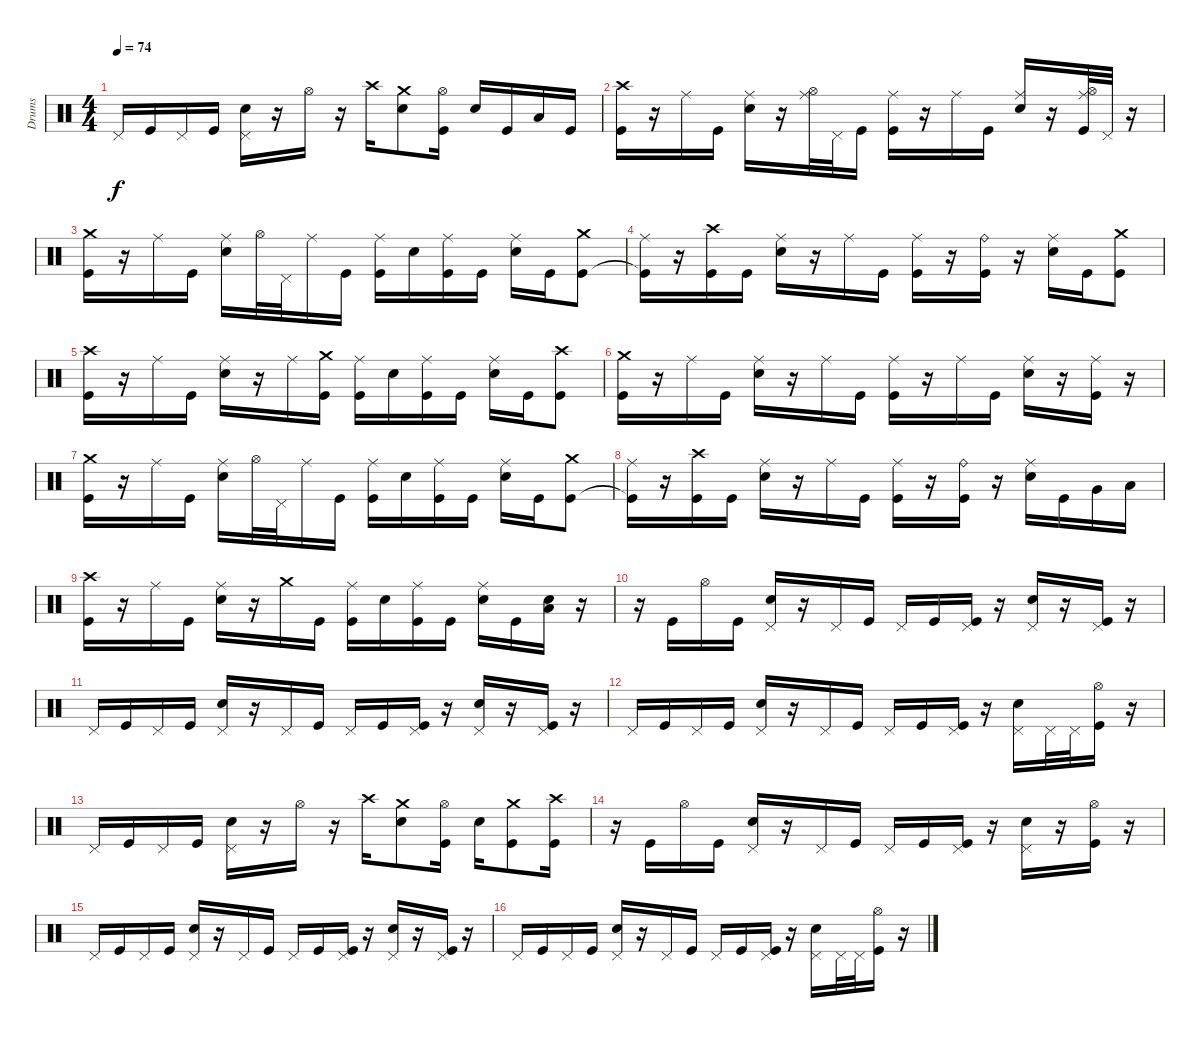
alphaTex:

\track ("Drums" "Drums") {instrument percussion}
\staff {score}
\articulation defaults
\ts (4 4)
\tempo 74
\clef neutral
\ks c "Pedal Hi-Hat (hit)".16{dy f} "Kick (hit)".16 "Pedal Hi-Hat (hit)".16 "Kick (hit)".16
("Pedal Hi-Hat (hit)" "Electric Snare (hit)").16 r.16 "Hi-Hat (open)".16 r.16 "Crash high (hit)".16 ("Crash medium (hit)" "Electric Snare (hit)").8 ("Hi-Hat (open)" "Kick (hit)").16 "Electric Snare (hit)".16 "Kick (hit)".16 "Low Tom (hit)".16 "Kick (hit)".16 |
("Crash high (hit)" "Kick (hit)").16 r.16 "Ride (middle)".16 "Kick (hit)".16 ("Ride (middle)" "Electric Snare (hit)").16 r.16 ("Ride (middle)" "Hi-Hat (open)").32 "Pedal Hi-Hat (hit)".32 "Kick (hit)".16 ("Ride (middle)" "Kick (hit)").16 r.16 "Ride (middle)".16 "Kick (hit)".16 ("Ride (middle)" "Electric Snare (hit)").16 r.16 ("Ride (middle)" "Kick (hit)" "Hi-Hat (open)").32 "Pedal Hi-Hat (hit)".32 r.16 |
("Crash medium (hit)" "Kick (hit)").16 r.16 "Ride (middle)".16 "Kick (hit)".16 ("Ride (middle)" "Electric Snare (hit)").16 "Hi-Hat (open)".32 "Pedal Hi-Hat (hit)".32 "Ride (middle)".16 "Kick (hit)".16 ("Ride (middle)" "Kick (hit)").16 "Electric Snare (hit)".16 ("Ride (middle)" "Kick (hit)").16 "Kick (hit)".16 ("Ride (middle)" "Electric Snare (hit)").16 "Kick (hit)".16 ("Crash medium (hit)" "Kick (hit)").8 |
("Ride (middle)" "Kick (hit)"{t}).16 r.16 ("Crash high (hit)" "Kick (hit)").16 "Kick (hit)".16 ("Ride (middle)" "Electric Snare (hit)").16 r.16 "Ride (middle)".16 "Kick (hit)".16 ("Ride (middle)" "Kick (hit)").16 r.16 ("Ride (bell)" "Kick (hit)").16 r.16 ("Ride (middle)" "Electric Snare (hit)").16 "Kick (hit)".16 ("Crash medium (hit)" "Kick (hit)").8 |
("Crash high (hit)" "Kick (hit)").16 r.16 "Ride (middle)".16 "Kick (hit)".16 ("Ride (middle)" "Electric Snare (hit)").16 r.16 "Ride (middle)".16 ("Crash medium (hit)" "Kick (hit)").16 ("Ride (middle)" "Kick (hit)").16 "Electric Snare (hit)".16 ("Ride (middle)" "Kick (hit)").16 "Kick (hit)".16 ("Ride (middle)" "Electric Snare (hit)").16 "Kick (hit)".16 ("Crash high (hit)" "Kick (hit)").8 |
("Crash medium (hit)" "Kick (hit)").16 r.16 "Ride (middle)".16 "Kick (hit)".16 ("Ride (middle)" "Electric Snare (hit)").16 r.16 "Ride (middle)".16 "Kick (hit)".16 ("Ride (middle)" "Kick (hit)").16 r.16 "Ride (middle)".16 "Kick (hit)".16 ("Ride (middle)" "Electric Snare (hit)").16 r.16 ("Ride (middle)" "Kick (hit)").16 r.16 |
("Crash medium (hit)" "Kick (hit)").16 r.16 "Ride (middle)".16 "Kick (hit)".16 ("Ride (middle)" "Electric Snare (hit)").16 "Hi-Hat (open)".32 "Pedal Hi-Hat (hit)".32 "Ride (middle)".16 "Kick (hit)".16 ("Ride (middle)" "Kick (hit)").16 "Electric Snare (hit)".16 ("Ride (middle)" "Kick (hit)").16 "Kick (hit)".16 ("Ride (middle)" "Electric Snare (hit)").16 "Kick (hit)".16 ("Crash medium (hit)" "Kick (hit)").8 |
("Ride (middle)" "Kick (hit)"{t}).16 r.16 ("Crash high (hit)" "Kick (hit)").16 "Kick (hit)".16 ("Ride (middle)" "Electric Snare (hit)").16 r.16 "Ride (middle)".16 "Kick (hit)".16 ("Ride (middle)" "Kick (hit)").16 r.16 ("Ride (bell)" "Kick (hit)").16 r.16 ("Ride (middle)" "Electric Snare (hit)").16 "Kick (hit)".16 "Very Low Tom (hit)".16 "Low Floor Tom (hit)".16 |
("Crash high (hit)" "Kick (hit)").16 r.16 "Ride (middle)".16 "Kick (hit)".16 ("Ride (middle)" "Electric Snare (hit)").16 r.16 "Crash medium (hit)".16 "Kick (hit)".16 ("Ride (middle)" "Kick (hit)").16 "Electric Snare (hit)".16 ("Ride (middle)" "Kick (hit)").16 "Kick (hit)".16 ("Ride (middle)" "Electric Snare (hit)").16 "Kick (hit)".16 ("Electric Snare (hit)" "Low Floor Tom (hit)").16 r.16 |
r.16 "Kick (hit)".16 "Hi-Hat (open)".16 "Kick (hit)".16 ("Pedal Hi-Hat (hit)" "Electric Snare (hit)").16 r.16 "Pedal Hi-Hat (hit)".16 "Kick (hit)".16 "Pedal Hi-Hat (hit)".16 "Kick (hit)".16 ("Pedal Hi-Hat (hit)" "Kick (hit)").16 r.16 ("Pedal Hi-Hat (hit)" "Electric Snare (hit)").16 r.16 ("Pedal Hi-Hat (hit)" "Kick (hit)").16 r.16 |
"Pedal Hi-Hat (hit)".16 "Kick (hit)".16 "Pedal Hi-Hat (hit)".16 "Kick (hit)".16 ("Pedal Hi-Hat (hit)" "Electric Snare (hit)").16 r.16 "Pedal Hi-Hat (hit)".16 "Kick (hit)".16 "Pedal Hi-Hat (hit)".16 "Kick (hit)".16 ("Pedal Hi-Hat (hit)" "Kick (hit)").16 r.16 ("Pedal Hi-Hat (hit)" "Electric Snare (hit)").16 r.16 ("Pedal Hi-Hat (hit)" "Kick (hit)").16 r.16 |
"Pedal Hi-Hat (hit)".16 "Kick (hit)".16 "Pedal Hi-Hat (hit)".16 "Kick (hit)".16 ("Pedal Hi-Hat (hit)" "Electric Snare (hit)").16 r.16 "Pedal Hi-Hat (hit)".16 "Kick (hit)".16 "Pedal Hi-Hat (hit)".16 "Kick (hit)".16 ("Pedal Hi-Hat (hit)" "Kick (hit)").16 r.16 ("Pedal Hi-Hat (hit)" "Electric Snare (hit)").16 "Pedal Hi-Hat (hit)".32 "Pedal Hi-Hat (hit)".32 ("Hi-Hat (open)" "Kick (hit)").16 r.16 |
"Pedal Hi-Hat (hit)".16 "Kick (hit)".16 "Pedal Hi-Hat (hit)".16 "Kick (hit)".16 ("Pedal Hi-Hat (hit)" "Electric Snare (hit)").16 r.16 "Hi-Hat (open)".16 r.16 "Crash high (hit)".16 ("Crash medium (hit)" "Electric Snare (hit)").8 ("Hi-Hat (open)" "Kick (hit)").16 "Electric Snare (hit)".16 ("Crash medium (hit)" "Kick (hit)").8 ("Crash high (hit)" "Kick (hit)").16 |
r.16 "Kick (hit)".16 "Hi-Hat (open)".16 "Kick (hit)".16 ("Pedal Hi-Hat (hit)" "Electric Snare (hit)").16 r.16 "Pedal Hi-Hat (hit)".16 "Kick (hit)".16 "Pedal Hi-Hat (hit)".16 "Kick (hit)".16 ("Pedal Hi-Hat (hit)" "Kick (hit)").16 r.16 ("Pedal Hi-Hat (hit)" "Electric Snare (hit)").16 r.16 ("Hi-Hat (open)" "Kick (hit)").16 r.16 |
"Pedal Hi-Hat (hit)".16 "Kick (hit)".16 "Pedal Hi-Hat (hit)".16 "Kick (hit)".16 ("Pedal Hi-Hat (hit)" "Electric Snare (hit)").16 r.16 "Pedal Hi-Hat (hit)".16 "Kick (hit)".16 "Pedal Hi-Hat (hit)".16 "Kick (hit)".16 ("Pedal Hi-Hat (hit)" "Kick (hit)").16 r.16 ("Pedal Hi-Hat (hit)" "Electric Snare (hit)").16 r.16 ("Pedal Hi-Hat (hit)" "Kick (hit)").16 r.16 |
"Pedal Hi-Hat (hit)".16 "Kick (hit)".16 "Pedal Hi-Hat (hit)".16 "Kick (hit)".16 ("Pedal Hi-Hat (hit)" "Electric Snare (hit)").16 r.16 "Pedal Hi-Hat (hit)".16 "Kick (hit)".16 "Pedal Hi-Hat (hit)".16 "Kick (hit)".16 ("Pedal Hi-Hat (hit)" "Kick (hit)").16 r.16 ("Pedal Hi-Hat (hit)" "Electric Snare (hit)").16 "Pedal Hi-Hat (hit)".32 "Pedal Hi-Hat (hit)".32 ("Hi-Hat (open)" "Kick (hit)").16 r.16
